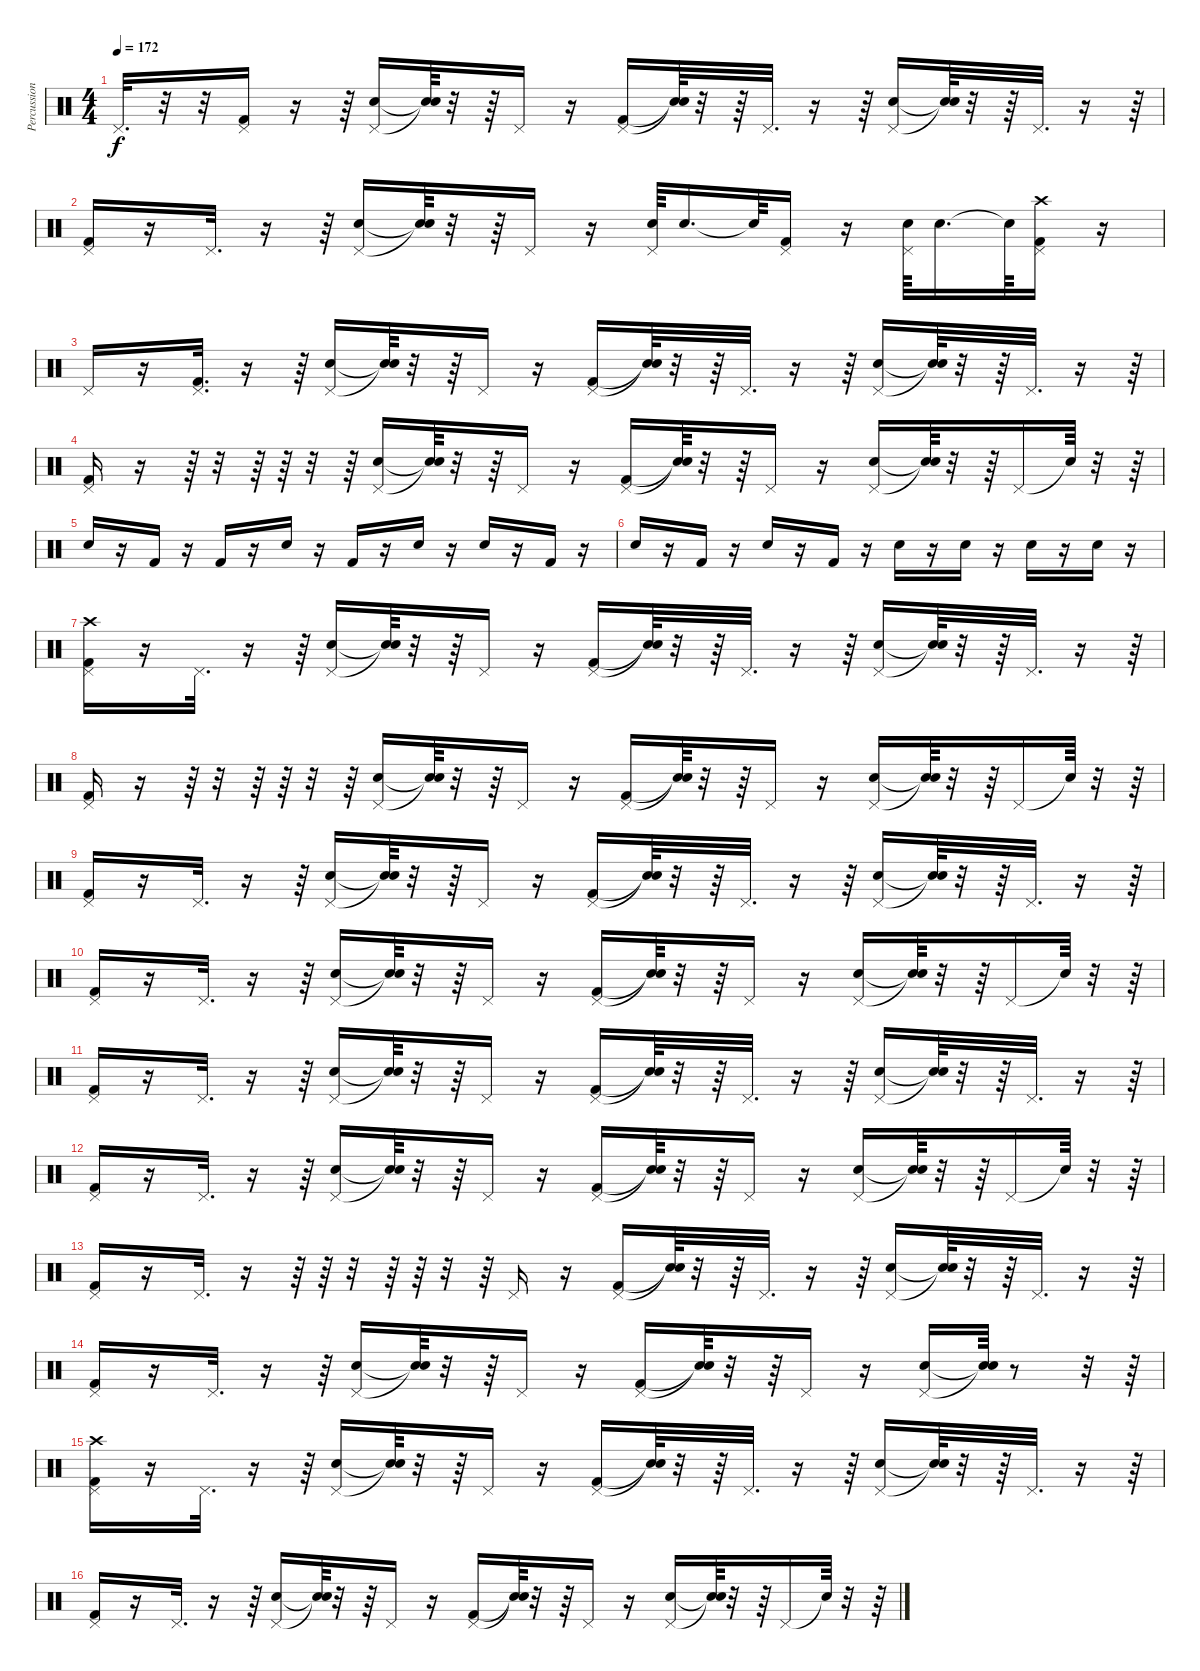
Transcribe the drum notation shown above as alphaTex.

\track ("Percussions" "Percussion") {instrument percussion}
\staff {score}
\articulation defaults
\ts (4 4)
\tempo 172
\clef neutral
\ks c "Pedal Hi-Hat (hit)".32{d dy f}
r.32 r.32 ("Pedal Hi-Hat (hit)" "Kick (hit) 2").16 r.16 r.64 ("Pedal Hi-Hat (hit)" "Snare (hit) 2").16 ("Snare (hit)"{t} "Snare (hit)"{t}).64 r.32 r.64 "Pedal Hi-Hat (hit)".16 r.16 ("Pedal Hi-Hat (hit)" "Kick (hit) 2").16 ("Snare (hit)"{t} "Snare (hit)"{t}).64 r.32 r.64 "Pedal Hi-Hat (hit)".32{d} r.16 r.64 ("Pedal Hi-Hat (hit)" "Snare (hit) 2").16 ("Snare (hit)"{t} "Snare (hit)"{t}).64 r.32 r.64 "Pedal Hi-Hat (hit)".32{d} r.16 r.64 |
("Pedal Hi-Hat (hit)" "Kick (hit) 2").16 r.16 "Pedal Hi-Hat (hit)".32{d} r.16 r.64 ("Pedal Hi-Hat (hit)" "Snare (hit) 2").16 ("Snare (hit)"{t} "Snare (hit)"{t}).64 r.32 r.64 "Pedal Hi-Hat (hit)".16 r.16 ("Pedal Hi-Hat (hit)" "Snare (hit) 2").64 "Snare (hit) 2".16{d} "Snare (hit)"{t}.64 ("Pedal Hi-Hat (hit)" "Kick (hit) 2").16 r.16 ("Pedal Hi-Hat (hit)" "Snare (hit) 2").64 "Snare (hit) 2".16{d} "Snare (hit)"{t}.64 ("Crash high (hit)" "Pedal Hi-Hat (hit)" "Kick (hit) 2").16 r.16 |
"Pedal Hi-Hat (hit)".16 r.16 ("Pedal Hi-Hat (hit)" "Kick (hit) 2").32{d} r.16 r.64 ("Pedal Hi-Hat (hit)" "Snare (hit) 2").16 ("Snare (hit)"{t} "Snare (hit)"{t}).64 r.32 r.64 "Pedal Hi-Hat (hit)".16 r.16 ("Pedal Hi-Hat (hit)" "Kick (hit) 2").16 ("Snare (hit)"{t} "Snare (hit)"{t}).64 r.32 r.64 "Pedal Hi-Hat (hit)".32{d} r.16 r.64 ("Pedal Hi-Hat (hit)" "Snare (hit) 2").16 ("Snare (hit)"{t} "Snare (hit)"{t}).64 r.32 r.64 "Pedal Hi-Hat (hit)".32{d} r.16 r.64 |
("Pedal Hi-Hat (hit)" "Kick (hit) 2").16 r.16 r.64 r.32 r.64 r.64 r.32 r.64 ("Pedal Hi-Hat (hit)" "Snare (hit) 2").16 ("Snare (hit)"{t} "Snare (hit)"{t}).64 r.32 r.64 "Pedal Hi-Hat (hit)".16 r.16 ("Pedal Hi-Hat (hit)" "Kick (hit) 2").16 ("Snare (hit)"{t} "Snare (hit)"{t}).64 r.32 r.64 "Pedal Hi-Hat (hit)".16 r.16 ("Pedal Hi-Hat (hit)" "Snare (hit) 2").16 ("Snare (hit)"{t} "Snare (hit)"{t}).64 r.32 r.64 "Pedal Hi-Hat (hit)".16 "Snare (hit)"{t}.64 r.32 r.64 |
"Snare (hit) 2".16 r.16 "Kick (hit) 2".16 r.16 "Kick (hit) 2".16 r.16 "Snare (hit) 2".16 r.16 "Kick (hit) 2".16 r.16 "Snare (hit) 2".16 r.16 "Snare (hit) 2".16 r.16 "Kick (hit) 2".16 r.16 |
"Snare (hit) 2".16 r.16 "Kick (hit) 2".16 r.16 "Snare (hit) 2".16 r.16 "Kick (hit) 2".16 r.16 "Snare (hit) 2".16 r.16 "Snare (hit) 2".16 r.16 "Snare (hit) 2".16 r.16 "Snare (hit) 2".16 r.16 |
("Pedal Hi-Hat (hit)" "Crash high (hit)" "Kick (hit) 2").16 r.16 "Pedal Hi-Hat (hit)".32{d} r.16 r.64 ("Pedal Hi-Hat (hit)" "Snare (hit) 2").16 ("Snare (hit)"{t} "Snare (hit)"{t}).64 r.32 r.64 "Pedal Hi-Hat (hit)".16 r.16 ("Pedal Hi-Hat (hit)" "Kick (hit) 2").16 ("Snare (hit)"{t} "Snare (hit)"{t}).64 r.32 r.64 "Pedal Hi-Hat (hit)".32{d} r.16 r.64 ("Pedal Hi-Hat (hit)" "Snare (hit) 2").16 ("Snare (hit)"{t} "Snare (hit)"{t}).64 r.32 r.64 "Pedal Hi-Hat (hit)".32{d} r.16 r.64 |
("Pedal Hi-Hat (hit)" "Kick (hit) 2").16 r.16 r.64 r.32 r.64 r.64 r.32 r.64 ("Pedal Hi-Hat (hit)" "Snare (hit) 2").16 ("Snare (hit)"{t} "Snare (hit)"{t}).64 r.32 r.64 "Pedal Hi-Hat (hit)".16 r.16 ("Pedal Hi-Hat (hit)" "Kick (hit) 2").16 ("Snare (hit)"{t} "Snare (hit)"{t}).64 r.32 r.64 "Pedal Hi-Hat (hit)".16 r.16 ("Pedal Hi-Hat (hit)" "Snare (hit) 2").16 ("Snare (hit)"{t} "Snare (hit)"{t}).64 r.32 r.64 "Pedal Hi-Hat (hit)".16 "Snare (hit)"{t}.64 r.32 r.64 |
("Pedal Hi-Hat (hit)" "Kick (hit) 2").16 r.16 "Pedal Hi-Hat (hit)".32{d} r.16 r.64 ("Pedal Hi-Hat (hit)" "Snare (hit) 2").16 ("Snare (hit)"{t} "Snare (hit)"{t}).64 r.32 r.64 "Pedal Hi-Hat (hit)".16 r.16 ("Pedal Hi-Hat (hit)" "Kick (hit) 2").16 ("Snare (hit)"{t} "Snare (hit)"{t}).64 r.32 r.64 "Pedal Hi-Hat (hit)".32{d} r.16 r.64 ("Pedal Hi-Hat (hit)" "Snare (hit) 2").16 ("Snare (hit)"{t} "Snare (hit)"{t}).64 r.32 r.64 "Pedal Hi-Hat (hit)".32{d} r.16 r.64 |
("Pedal Hi-Hat (hit)" "Kick (hit) 2").16 r.16 "Pedal Hi-Hat (hit)".32{d} r.16 r.64 ("Pedal Hi-Hat (hit)" "Snare (hit) 2").16 ("Snare (hit)"{t} "Snare (hit)"{t}).64 r.32 r.64 "Pedal Hi-Hat (hit)".16 r.16 ("Pedal Hi-Hat (hit)" "Kick (hit) 2").16 ("Snare (hit)"{t} "Snare (hit)"{t}).64 r.32 r.64 "Pedal Hi-Hat (hit)".16 r.16 ("Pedal Hi-Hat (hit)" "Snare (hit) 2").16 ("Snare (hit)"{t} "Snare (hit)"{t}).64 r.32 r.64 "Pedal Hi-Hat (hit)".16 "Snare (hit)"{t}.64 r.32 r.64 |
("Pedal Hi-Hat (hit)" "Kick (hit) 2").16 r.16 "Pedal Hi-Hat (hit)".32{d} r.16 r.64 ("Pedal Hi-Hat (hit)" "Snare (hit) 2").16 ("Snare (hit)"{t} "Snare (hit)"{t}).64 r.32 r.64 "Pedal Hi-Hat (hit)".16 r.16 ("Pedal Hi-Hat (hit)" "Kick (hit) 2").16 ("Snare (hit)"{t} "Snare (hit)"{t}).64 r.32 r.64 "Pedal Hi-Hat (hit)".32{d} r.16 r.64 ("Pedal Hi-Hat (hit)" "Snare (hit) 2").16 ("Snare (hit)"{t} "Snare (hit)"{t}).64 r.32 r.64 "Pedal Hi-Hat (hit)".32{d} r.16 r.64 |
("Pedal Hi-Hat (hit)" "Kick (hit) 2").16 r.16 "Pedal Hi-Hat (hit)".32{d} r.16 r.64 ("Pedal Hi-Hat (hit)" "Snare (hit) 2").16 ("Snare (hit)"{t} "Snare (hit)"{t}).64 r.32 r.64 "Pedal Hi-Hat (hit)".16 r.16 ("Pedal Hi-Hat (hit)" "Kick (hit) 2").16 ("Snare (hit)"{t} "Snare (hit)"{t}).64 r.32 r.64 "Pedal Hi-Hat (hit)".16 r.16 ("Pedal Hi-Hat (hit)" "Snare (hit) 2").16 ("Snare (hit)"{t} "Snare (hit)"{t}).64 r.32 r.64 "Pedal Hi-Hat (hit)".16 "Snare (hit)"{t}.64 r.32 r.64 |
("Pedal Hi-Hat (hit)" "Kick (hit) 2").16 r.16 "Pedal Hi-Hat (hit)".32{d} r.16 r.64 r.64 r.32 r.64 r.64 r.32 r.64 "Pedal Hi-Hat (hit)".16 r.16 ("Pedal Hi-Hat (hit)" "Kick (hit) 2").16 ("Snare (hit)"{t} "Snare (hit)"{t}).64 r.32 r.64 "Pedal Hi-Hat (hit)".32{d} r.16 r.64 ("Pedal Hi-Hat (hit)" "Snare (hit) 2").16 ("Snare (hit)"{t} "Snare (hit)"{t}).64 r.32 r.64 "Pedal Hi-Hat (hit)".32{d} r.16 r.64 |
("Pedal Hi-Hat (hit)" "Kick (hit) 2").16 r.16 "Pedal Hi-Hat (hit)".32{d} r.16 r.64 ("Pedal Hi-Hat (hit)" "Snare (hit) 2").16 ("Snare (hit)"{t} "Snare (hit)"{t}).64 r.32 r.64 "Pedal Hi-Hat (hit)".16 r.16 ("Pedal Hi-Hat (hit)" "Kick (hit) 2").16 ("Snare (hit)"{t} "Snare (hit)"{t}).64 r.32 r.64 "Pedal Hi-Hat (hit)".16 r.16 ("Pedal Hi-Hat (hit)" "Snare (hit) 2").16 ("Snare (hit)"{t} "Snare (hit)"{t}).64 r.8 r.32 r.64 |
("Pedal Hi-Hat (hit)" "Crash high (hit)" "Kick (hit) 2").16 r.16 "Pedal Hi-Hat (hit)".32{d} r.16 r.64 ("Pedal Hi-Hat (hit)" "Snare (hit) 2").16 ("Snare (hit)"{t} "Snare (hit)"{t}).64 r.32 r.64 "Pedal Hi-Hat (hit)".16 r.16 ("Pedal Hi-Hat (hit)" "Kick (hit) 2").16 ("Snare (hit)"{t} "Snare (hit)"{t}).64 r.32 r.64 "Pedal Hi-Hat (hit)".32{d} r.16 r.64 ("Pedal Hi-Hat (hit)" "Snare (hit) 2").16 ("Snare (hit)"{t} "Snare (hit)"{t}).64 r.32 r.64 "Pedal Hi-Hat (hit)".32{d} r.16 r.64 |
("Pedal Hi-Hat (hit)" "Kick (hit) 2").16 r.16 "Pedal Hi-Hat (hit)".32{d} r.16 r.64 ("Pedal Hi-Hat (hit)" "Snare (hit) 2").16 ("Snare (hit)"{t} "Snare (hit)"{t}).64 r.32 r.64 "Pedal Hi-Hat (hit)".16 r.16 ("Pedal Hi-Hat (hit)" "Kick (hit) 2").16 ("Snare (hit)"{t} "Snare (hit)"{t}).64 r.32 r.64 "Pedal Hi-Hat (hit)".16 r.16 ("Pedal Hi-Hat (hit)" "Snare (hit) 2").16 ("Snare (hit)"{t} "Snare (hit)"{t}).64 r.32 r.64 "Pedal Hi-Hat (hit)".16 "Snare (hit)"{t}.64 r.32 r.64
